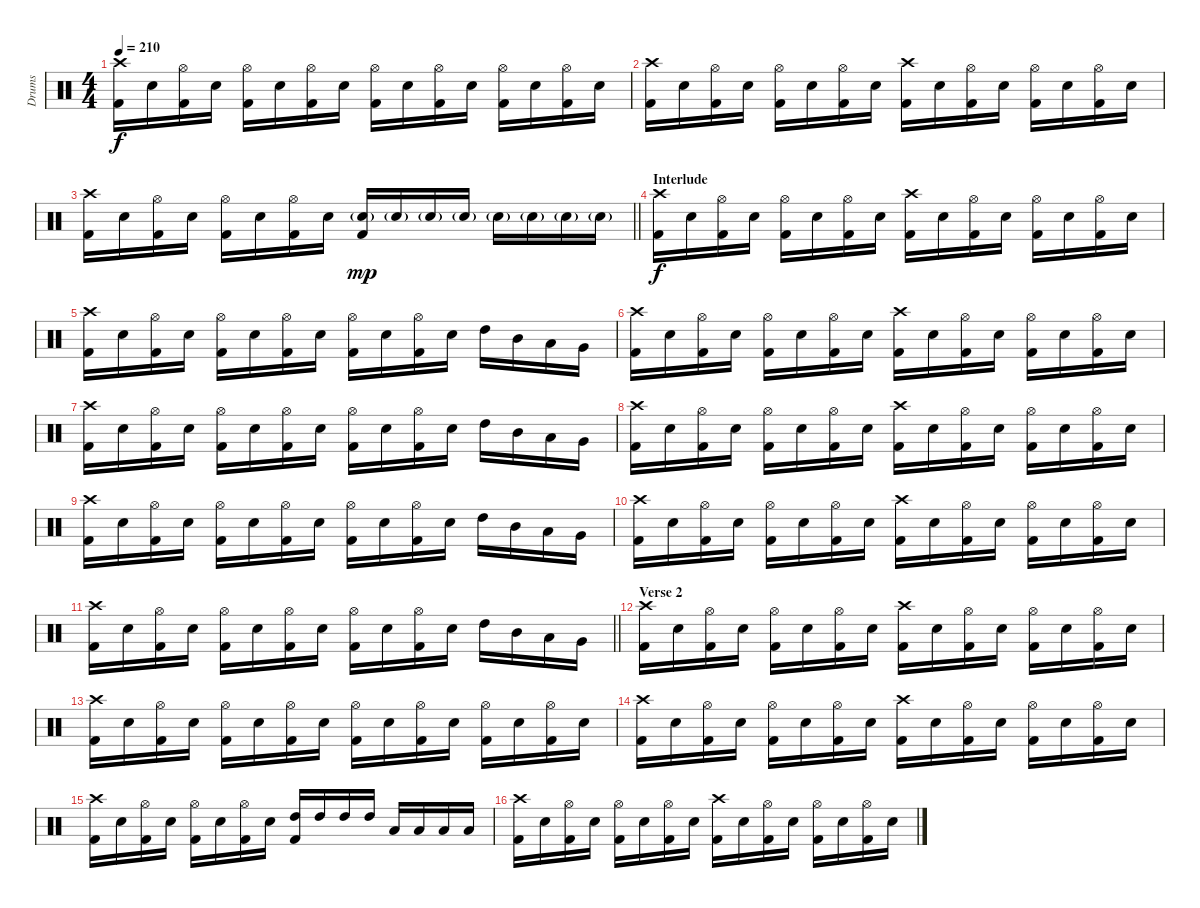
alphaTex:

\track ("Drums" "Drums") {instrument percussion}
\staff {score}
\articulation defaults
\ts (4 4)
\tempo 210
\clef neutral
\ks c
("Crash high (hit)" "Kick (hit) 2").16{dy f} "Electric Snare (hit)".16 ("Hi-Hat (open)" "Kick (hit) 2").16 "Electric Snare (hit)".16 ("Hi-Hat (open)" "Kick (hit) 2").16 "Electric Snare (hit)".16 ("Hi-Hat (open)" "Kick (hit) 2").16 "Electric Snare (hit)".16 ("Hi-Hat (open)" "Kick (hit) 2").16 "Electric Snare (hit)".16 ("Hi-Hat (open)" "Kick (hit) 2").16 "Electric Snare (hit)".16 ("Hi-Hat (open)" "Kick (hit) 2").16 "Electric Snare (hit)".16 ("Hi-Hat (open)" "Kick (hit) 2").16 "Electric Snare (hit)".16 |
("Crash high (hit)" "Kick (hit) 2").16 "Electric Snare (hit)".16 ("Hi-Hat (open)" "Kick (hit) 2").16 "Electric Snare (hit)".16 ("Hi-Hat (open)" "Kick (hit) 2").16 "Electric Snare (hit)".16 ("Hi-Hat (open)" "Kick (hit) 2").16 "Electric Snare (hit)".16 ("Crash high (hit)" "Kick (hit) 2").16 "Electric Snare (hit)".16 ("Hi-Hat (open)" "Kick (hit) 2").16 "Electric Snare (hit)".16 ("Hi-Hat (open)" "Kick (hit) 2").16 "Electric Snare (hit)".16 ("Hi-Hat (open)" "Kick (hit) 2").16 "Electric Snare (hit)".16 |
\barLineRight lightlight
("Crash high (hit)" "Kick (hit) 2").16 "Electric Snare (hit)".16 ("Hi-Hat (open)" "Kick (hit) 2").16 "Electric Snare (hit)".16 ("Hi-Hat (open)" "Kick (hit) 2").16 "Electric Snare (hit)".16 ("Hi-Hat (open)" "Kick (hit) 2").16 "Electric Snare (hit)".16 ("Electric Snare (hit)"{g} "Kick (hit) 2").16{dy mp} "Electric Snare (hit)"{g}.16 "Electric Snare (hit)"{g}.16 "Electric Snare (hit)"{g}.16 "Electric Snare (hit)"{g}.16 "Electric Snare (hit)"{g}.16 "Electric Snare (hit)"{g}.16 "Electric Snare (hit)"{g}.16 |
\section ("" "Interlude")
("Crash high (hit)" "Kick (hit) 2").16{dy f} "Electric Snare (hit)".16 ("Hi-Hat (open)" "Kick (hit) 2").16 "Electric Snare (hit)".16 ("Hi-Hat (open)" "Kick (hit) 2").16 "Electric Snare (hit)".16 ("Hi-Hat (open)" "Kick (hit) 2").16 "Electric Snare (hit)".16 ("Crash high (hit)" "Kick (hit) 2").16 "Electric Snare (hit)".16 ("Hi-Hat (open)" "Kick (hit) 2").16 "Electric Snare (hit)".16 ("Hi-Hat (open)" "Kick (hit) 2").16 "Electric Snare (hit)".16 ("Hi-Hat (open)" "Kick (hit) 2").16 "Electric Snare (hit)".16 |
("Crash high (hit)" "Kick (hit) 2").16 "Electric Snare (hit)".16 ("Hi-Hat (open)" "Kick (hit) 2").16 "Electric Snare (hit)".16 ("Hi-Hat (open)" "Kick (hit) 2").16 "Electric Snare (hit)".16 ("Hi-Hat (open)" "Kick (hit) 2").16 "Electric Snare (hit)".16 ("Hi-Hat (open)" "Kick (hit) 2").16 "Electric Snare (hit)".16 ("Hi-Hat (open)" "Kick (hit) 2").16 "Electric Snare (hit)".16 "High Tom (hit)".16 "Mid Tom (hit)".16 "Low Tom (hit)".16 "Very Low Tom (hit)".16 |
("Crash high (hit)" "Kick (hit) 2").16 "Electric Snare (hit)".16 ("Hi-Hat (open)" "Kick (hit) 2").16 "Electric Snare (hit)".16 ("Hi-Hat (open)" "Kick (hit) 2").16 "Electric Snare (hit)".16 ("Hi-Hat (open)" "Kick (hit) 2").16 "Electric Snare (hit)".16 ("Crash high (hit)" "Kick (hit) 2").16 "Electric Snare (hit)".16 ("Hi-Hat (open)" "Kick (hit) 2").16 "Electric Snare (hit)".16 ("Hi-Hat (open)" "Kick (hit) 2").16 "Electric Snare (hit)".16 ("Hi-Hat (open)" "Kick (hit) 2").16 "Electric Snare (hit)".16 |
("Crash high (hit)" "Kick (hit) 2").16 "Electric Snare (hit)".16 ("Hi-Hat (open)" "Kick (hit) 2").16 "Electric Snare (hit)".16 ("Hi-Hat (open)" "Kick (hit) 2").16 "Electric Snare (hit)".16 ("Hi-Hat (open)" "Kick (hit) 2").16 "Electric Snare (hit)".16 ("Hi-Hat (open)" "Kick (hit) 2").16 "Electric Snare (hit)".16 ("Hi-Hat (open)" "Kick (hit) 2").16 "Electric Snare (hit)".16 "High Tom (hit)".16 "Mid Tom (hit)".16 "Low Tom (hit)".16 "Very Low Tom (hit)".16 |
("Crash high (hit)" "Kick (hit) 2").16 "Electric Snare (hit)".16 ("Hi-Hat (open)" "Kick (hit) 2").16 "Electric Snare (hit)".16 ("Hi-Hat (open)" "Kick (hit) 2").16 "Electric Snare (hit)".16 ("Hi-Hat (open)" "Kick (hit) 2").16 "Electric Snare (hit)".16 ("Crash high (hit)" "Kick (hit) 2").16 "Electric Snare (hit)".16 ("Hi-Hat (open)" "Kick (hit) 2").16 "Electric Snare (hit)".16 ("Hi-Hat (open)" "Kick (hit) 2").16 "Electric Snare (hit)".16 ("Hi-Hat (open)" "Kick (hit) 2").16 "Electric Snare (hit)".16 |
("Crash high (hit)" "Kick (hit) 2").16 "Electric Snare (hit)".16 ("Hi-Hat (open)" "Kick (hit) 2").16 "Electric Snare (hit)".16 ("Hi-Hat (open)" "Kick (hit) 2").16 "Electric Snare (hit)".16 ("Hi-Hat (open)" "Kick (hit) 2").16 "Electric Snare (hit)".16 ("Hi-Hat (open)" "Kick (hit) 2").16 "Electric Snare (hit)".16 ("Hi-Hat (open)" "Kick (hit) 2").16 "Electric Snare (hit)".16 "High Tom (hit)".16 "Mid Tom (hit)".16 "Low Tom (hit)".16 "Very Low Tom (hit)".16 |
("Crash high (hit)" "Kick (hit) 2").16 "Electric Snare (hit)".16 ("Hi-Hat (open)" "Kick (hit) 2").16 "Electric Snare (hit)".16 ("Hi-Hat (open)" "Kick (hit) 2").16 "Electric Snare (hit)".16 ("Hi-Hat (open)" "Kick (hit) 2").16 "Electric Snare (hit)".16 ("Crash high (hit)" "Kick (hit) 2").16 "Electric Snare (hit)".16 ("Hi-Hat (open)" "Kick (hit) 2").16 "Electric Snare (hit)".16 ("Hi-Hat (open)" "Kick (hit) 2").16 "Electric Snare (hit)".16 ("Hi-Hat (open)" "Kick (hit) 2").16 "Electric Snare (hit)".16 |
\barLineRight lightlight
("Crash high (hit)" "Kick (hit) 2").16 "Electric Snare (hit)".16 ("Hi-Hat (open)" "Kick (hit) 2").16 "Electric Snare (hit)".16 ("Hi-Hat (open)" "Kick (hit) 2").16 "Electric Snare (hit)".16 ("Hi-Hat (open)" "Kick (hit) 2").16 "Electric Snare (hit)".16 ("Hi-Hat (open)" "Kick (hit) 2").16 "Electric Snare (hit)".16 ("Hi-Hat (open)" "Kick (hit) 2").16 "Electric Snare (hit)".16 "High Tom (hit)".16 "Mid Tom (hit)".16 "Low Tom (hit)".16 "Very Low Tom (hit)".16 |
\section ("" "Verse 2")
("Crash high (hit)" "Kick (hit) 2").16 "Electric Snare (hit)".16 ("Hi-Hat (open)" "Kick (hit) 2").16 "Electric Snare (hit)".16 ("Hi-Hat (open)" "Kick (hit) 2").16 "Electric Snare (hit)".16 ("Hi-Hat (open)" "Kick (hit) 2").16 "Electric Snare (hit)".16 ("Crash high (hit)" "Kick (hit) 2").16 "Electric Snare (hit)".16 ("Hi-Hat (open)" "Kick (hit) 2").16 "Electric Snare (hit)".16 ("Hi-Hat (open)" "Kick (hit) 2").16 "Electric Snare (hit)".16 ("Hi-Hat (open)" "Kick (hit) 2").16 "Electric Snare (hit)".16 |
("Crash high (hit)" "Kick (hit) 2").16 "Electric Snare (hit)".16 ("Hi-Hat (open)" "Kick (hit) 2").16 "Electric Snare (hit)".16 ("Hi-Hat (open)" "Kick (hit) 2").16 "Electric Snare (hit)".16 ("Hi-Hat (open)" "Kick (hit) 2").16 "Electric Snare (hit)".16 ("Hi-Hat (open)" "Kick (hit) 2").16 "Electric Snare (hit)".16 ("Hi-Hat (open)" "Kick (hit) 2").16 "Electric Snare (hit)".16 ("Hi-Hat (open)" "Kick (hit) 2").16 "Electric Snare (hit)".16 ("Hi-Hat (open)" "Kick (hit) 2").16 "Electric Snare (hit)".16 |
("Crash high (hit)" "Kick (hit) 2").16 "Electric Snare (hit)".16 ("Hi-Hat (open)" "Kick (hit) 2").16 "Electric Snare (hit)".16 ("Hi-Hat (open)" "Kick (hit) 2").16 "Electric Snare (hit)".16 ("Hi-Hat (open)" "Kick (hit) 2").16 "Electric Snare (hit)".16 ("Crash high (hit)" "Kick (hit) 2").16 "Electric Snare (hit)".16 ("Hi-Hat (open)" "Kick (hit) 2").16 "Electric Snare (hit)".16 ("Hi-Hat (open)" "Kick (hit) 2").16 "Electric Snare (hit)".16 ("Hi-Hat (open)" "Kick (hit) 2").16 "Electric Snare (hit)".16 |
("Crash high (hit)" "Kick (hit) 2").16 "Electric Snare (hit)".16 ("Hi-Hat (open)" "Kick (hit) 2").16 "Electric Snare (hit)".16 ("Hi-Hat (open)" "Kick (hit) 2").16 "Electric Snare (hit)".16 ("Hi-Hat (open)" "Kick (hit) 2").16 "Electric Snare (hit)".16 ("High Tom (hit)" "Kick (hit) 2").16 "High Tom (hit)".16 "High Tom (hit)".16 "High Tom (hit)".16 "Low Tom (hit)".16 "Low Tom (hit)".16 "Low Tom (hit)".16 "Low Tom (hit)".16 |
("Crash high (hit)" "Kick (hit) 2").16 "Electric Snare (hit)".16 ("Hi-Hat (open)" "Kick (hit) 2").16 "Electric Snare (hit)".16 ("Hi-Hat (open)" "Kick (hit) 2").16 "Electric Snare (hit)".16 ("Hi-Hat (open)" "Kick (hit) 2").16 "Electric Snare (hit)".16 ("Crash high (hit)" "Kick (hit) 2").16 "Electric Snare (hit)".16 ("Hi-Hat (open)" "Kick (hit) 2").16 "Electric Snare (hit)".16 ("Hi-Hat (open)" "Kick (hit) 2").16 "Electric Snare (hit)".16 ("Hi-Hat (open)" "Kick (hit) 2").16 "Electric Snare (hit)".16
